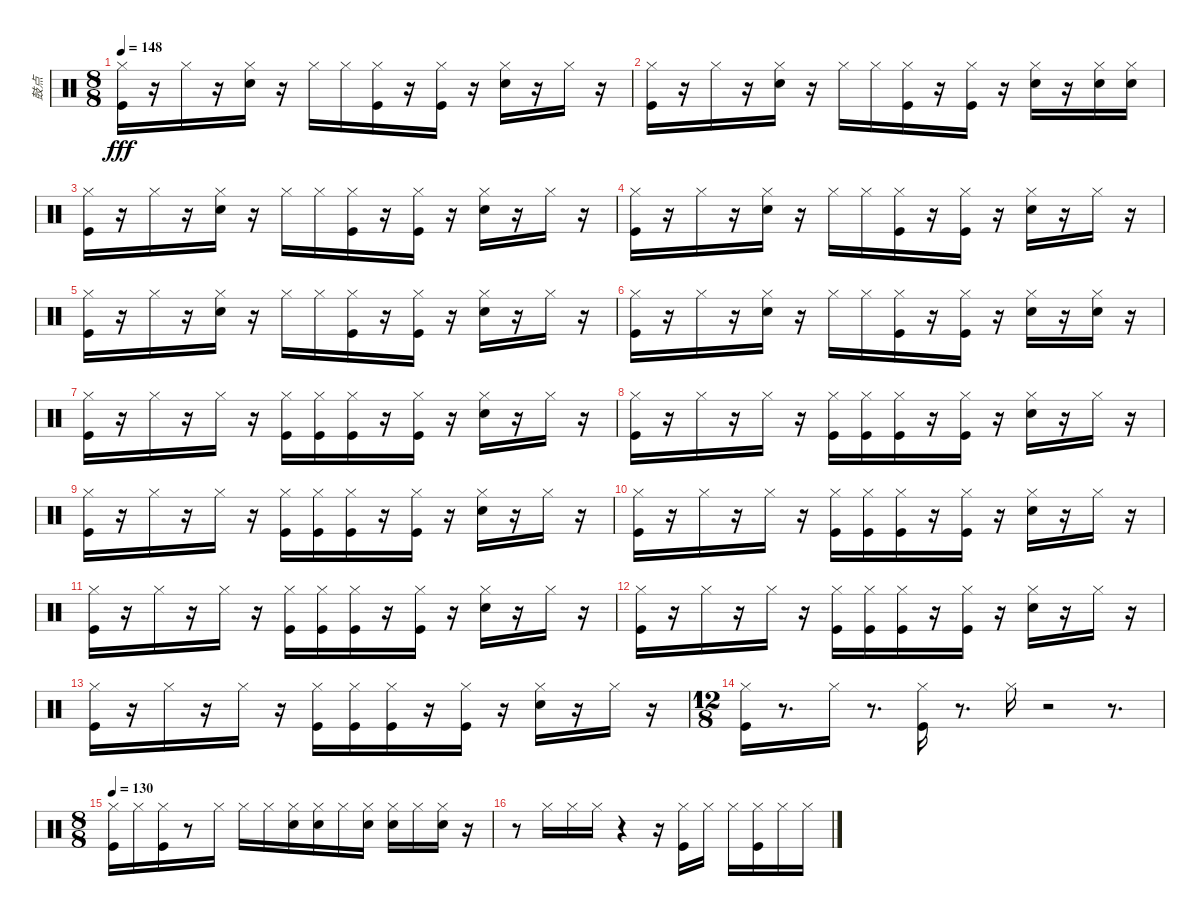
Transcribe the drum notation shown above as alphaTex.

\track ("鼓点" "鼓点") {instrument percussion}
\staff {score}
\articulation defaults
\ts (8 8)
\tempo 148
\clef neutral
\ks c
("Kick (hit)" "Hi-Hat (closed)").16{dy fff} r.16 "Hi-Hat (closed)".16 r.16 ("Snare (hit) 2" "Hi-Hat (closed)").16 r.16 "Hi-Hat (closed)".16 "Hi-Hat (closed)".16 ("Kick (hit)" "Hi-Hat (closed)").16 r.16 ("Kick (hit)" "Hi-Hat (closed)").16 r.16 ("Snare (hit) 2" "Hi-Hat (closed)").16 r.16 "Hi-Hat (closed)".16 r.16 |
("Kick (hit)" "Hi-Hat (closed)").16 r.16 "Hi-Hat (closed)".16 r.16 ("Snare (hit) 2" "Hi-Hat (closed)").16 r.16 "Hi-Hat (closed)".16 "Hi-Hat (closed)".16 ("Kick (hit)" "Hi-Hat (closed)").16 r.16 ("Kick (hit)" "Hi-Hat (closed)").16 r.16 ("Snare (hit) 2" "Hi-Hat (closed)").16 r.16 ("Snare (hit) 2" "Hi-Hat (closed)").16 ("Snare (hit) 2" "Hi-Hat (closed)").16 |
("Kick (hit)" "Hi-Hat (closed)").16 r.16 "Hi-Hat (closed)".16 r.16 ("Snare (hit) 2" "Hi-Hat (closed)").16 r.16 "Hi-Hat (closed)".16 "Hi-Hat (closed)".16 ("Kick (hit)" "Hi-Hat (closed)").16 r.16 ("Kick (hit)" "Hi-Hat (closed)").16 r.16 ("Snare (hit) 2" "Hi-Hat (closed)").16 r.16 "Hi-Hat (closed)".16 r.16 |
("Kick (hit)" "Hi-Hat (closed)").16 r.16 "Hi-Hat (closed)".16 r.16 ("Snare (hit) 2" "Hi-Hat (closed)").16 r.16 "Hi-Hat (closed)".16 "Hi-Hat (closed)".16 ("Kick (hit)" "Hi-Hat (closed)").16 r.16 ("Kick (hit)" "Hi-Hat (closed)").16 r.16 ("Snare (hit) 2" "Hi-Hat (closed)").16 r.16 "Hi-Hat (closed)".16 r.16 |
("Kick (hit)" "Hi-Hat (closed)").16 r.16 "Hi-Hat (closed)".16 r.16 ("Snare (hit) 2" "Hi-Hat (closed)").16 r.16 "Hi-Hat (closed)".16 "Hi-Hat (closed)".16 ("Kick (hit)" "Hi-Hat (closed)").16 r.16 ("Kick (hit)" "Hi-Hat (closed)").16 r.16 ("Snare (hit) 2" "Hi-Hat (closed)").16 r.16 "Hi-Hat (closed)".16 r.16 |
("Kick (hit)" "Hi-Hat (closed)").16 r.16 "Hi-Hat (closed)".16 r.16 ("Snare (hit) 2" "Hi-Hat (closed)").16 r.16 "Hi-Hat (closed)".16 "Hi-Hat (closed)".16 ("Kick (hit)" "Hi-Hat (closed)").16 r.16 ("Kick (hit)" "Hi-Hat (closed)").16 r.16 ("Snare (hit) 2" "Hi-Hat (closed)").16 r.16 ("Snare (hit) 2" "Hi-Hat (closed)").16 r.16 |
("Kick (hit)" "Hi-Hat (closed)").16 r.16 "Hi-Hat (closed)".16 r.16 "Hi-Hat (closed)".16 r.16 ("Kick (hit)" "Hi-Hat (closed)").16 ("Kick (hit)" "Hi-Hat (closed)").16 ("Kick (hit)" "Hi-Hat (closed)").16 r.16 ("Kick (hit)" "Hi-Hat (closed)").16 r.16 ("Snare (hit) 2" "Hi-Hat (closed)").16 r.16 "Hi-Hat (closed)".16 r.16 |
("Kick (hit)" "Hi-Hat (closed)").16 r.16 "Hi-Hat (closed)".16 r.16 "Hi-Hat (closed)".16 r.16 ("Kick (hit)" "Hi-Hat (closed)").16 ("Kick (hit)" "Hi-Hat (closed)").16 ("Kick (hit)" "Hi-Hat (closed)").16 r.16 ("Kick (hit)" "Hi-Hat (closed)").16 r.16 ("Snare (hit) 2" "Hi-Hat (closed)").16 r.16 "Hi-Hat (closed)".16 r.16 |
("Kick (hit)" "Hi-Hat (closed)").16 r.16 "Hi-Hat (closed)".16 r.16 "Hi-Hat (closed)".16 r.16 ("Kick (hit)" "Hi-Hat (closed)").16 ("Kick (hit)" "Hi-Hat (closed)").16 ("Kick (hit)" "Hi-Hat (closed)").16 r.16 ("Kick (hit)" "Hi-Hat (closed)").16 r.16 ("Snare (hit) 2" "Hi-Hat (closed)").16 r.16 "Hi-Hat (closed)".16 r.16 |
("Kick (hit)" "Hi-Hat (closed)").16 r.16 "Hi-Hat (closed)".16 r.16 "Hi-Hat (closed)".16 r.16 ("Kick (hit)" "Hi-Hat (closed)").16 ("Kick (hit)" "Hi-Hat (closed)").16 ("Kick (hit)" "Hi-Hat (closed)").16 r.16 ("Kick (hit)" "Hi-Hat (closed)").16 r.16 ("Snare (hit) 2" "Hi-Hat (closed)").16 r.16 "Hi-Hat (closed)".16 r.16 |
("Kick (hit)" "Hi-Hat (closed)").16 r.16 "Hi-Hat (closed)".16 r.16 "Hi-Hat (closed)".16 r.16 ("Kick (hit)" "Hi-Hat (closed)").16 ("Kick (hit)" "Hi-Hat (closed)").16 ("Kick (hit)" "Hi-Hat (closed)").16 r.16 ("Kick (hit)" "Hi-Hat (closed)").16 r.16 ("Snare (hit) 2" "Hi-Hat (closed)").16 r.16 "Hi-Hat (closed)".16 r.16 |
("Kick (hit)" "Hi-Hat (closed)").16 r.16 "Hi-Hat (closed)".16 r.16 "Hi-Hat (closed)".16 r.16 ("Kick (hit)" "Hi-Hat (closed)").16 ("Kick (hit)" "Hi-Hat (closed)").16 ("Kick (hit)" "Hi-Hat (closed)").16 r.16 ("Kick (hit)" "Hi-Hat (closed)").16 r.16 ("Snare (hit) 2" "Hi-Hat (closed)").16 r.16 "Hi-Hat (closed)".16 r.16 |
("Kick (hit)" "Hi-Hat (closed)").16 r.16 "Hi-Hat (closed)".16 r.16 "Hi-Hat (closed)".16 r.16 ("Kick (hit)" "Hi-Hat (closed)").16 ("Kick (hit)" "Hi-Hat (closed)").16 ("Kick (hit)" "Hi-Hat (closed)").16 r.16 ("Kick (hit)" "Hi-Hat (closed)").16 r.16 ("Snare (hit) 2" "Hi-Hat (closed)").16 r.16 "Hi-Hat (closed)".16 r.16 |
\ts (12 8)
("Kick (hit)" "Hi-Hat (closed)").16 r.8{d} "Hi-Hat (closed)".16 r.8{d} ("Kick (hit)" "Hi-Hat (closed)").16 r.8{d} "Hi-Hat (closed)".16 r.2 r.8{d} |
\ts (8 8)
\tempo 130
("Hi-Hat (closed)" "Kick (hit)").16 "Hi-Hat (closed)".16 ("Hi-Hat (closed)" "Kick (hit)").16 r.8 "Hi-Hat (closed)".16 "Hi-Hat (closed)".16 "Hi-Hat (closed)".16 ("Hi-Hat (closed)" "Snare (hit) 2").16 ("Hi-Hat (closed)" "Snare (hit) 2").16 "Hi-Hat (closed)".16 ("Hi-Hat (closed)" "Snare (hit) 2").16 ("Hi-Hat (closed)" "Snare (hit) 2").16 "Hi-Hat (closed)".16 ("Hi-Hat (closed)" "Snare (hit) 2").16 r.16 |
r.8 "Hi-Hat (closed)".16 "Hi-Hat (closed)".16 "Hi-Hat (closed)".16 r.4 r.16 ("Hi-Hat (closed)" "Kick (hit)").16 "Hi-Hat (closed)".16 "Hi-Hat (closed)".16 ("Hi-Hat (closed)" "Kick (hit)").16 "Hi-Hat (closed)".16 "Hi-Hat (closed)".16
